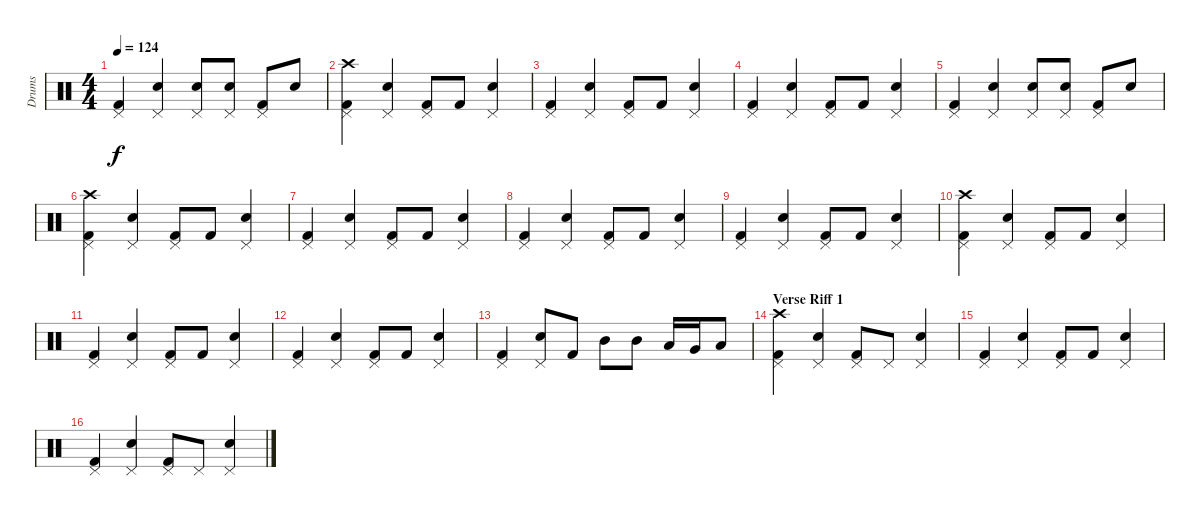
\track ("Drums" "Drums") {instrument percussion}
\staff {score}
\articulation defaults
\ts (4 4)
\tempo 124
\clef neutral
\ks c
("Kick (hit) 2" "Pedal Hi-Hat (hit)").4{dy f} ("Snare (hit) 2" "Pedal Hi-Hat (hit)").4 ("Snare (hit) 2" "Pedal Hi-Hat (hit)").8 ("Snare (hit) 2" "Pedal Hi-Hat (hit)").8 ("Kick (hit) 2" "Pedal Hi-Hat (hit)").8 "Snare (hit) 2".8 |
("Kick (hit) 2" "Pedal Hi-Hat (hit)" "Crash high (hit)").4 ("Snare (hit) 2" "Pedal Hi-Hat (hit)").4 ("Kick (hit) 2" "Pedal Hi-Hat (hit)").8 "Kick (hit) 2".8 ("Snare (hit) 2" "Pedal Hi-Hat (hit)").4 |
("Kick (hit) 2" "Pedal Hi-Hat (hit)").4 ("Snare (hit) 2" "Pedal Hi-Hat (hit)").4 ("Kick (hit) 2" "Pedal Hi-Hat (hit)").8 "Kick (hit) 2".8 ("Snare (hit) 2" "Pedal Hi-Hat (hit)").4 |
("Kick (hit) 2" "Pedal Hi-Hat (hit)").4 ("Snare (hit) 2" "Pedal Hi-Hat (hit)").4 ("Kick (hit) 2" "Pedal Hi-Hat (hit)").8 "Kick (hit) 2".8 ("Snare (hit) 2" "Pedal Hi-Hat (hit)").4 |
("Kick (hit) 2" "Pedal Hi-Hat (hit)").4 ("Snare (hit) 2" "Pedal Hi-Hat (hit)").4 ("Snare (hit) 2" "Pedal Hi-Hat (hit)").8 ("Snare (hit) 2" "Pedal Hi-Hat (hit)").8 ("Kick (hit) 2" "Pedal Hi-Hat (hit)").8 "Snare (hit) 2".8 |
("Kick (hit) 2" "Pedal Hi-Hat (hit)" "Crash high (hit)").4 ("Snare (hit) 2" "Pedal Hi-Hat (hit)").4 ("Kick (hit) 2" "Pedal Hi-Hat (hit)").8 "Kick (hit) 2".8 ("Snare (hit) 2" "Pedal Hi-Hat (hit)").4 |
("Kick (hit) 2" "Pedal Hi-Hat (hit)").4 ("Snare (hit) 2" "Pedal Hi-Hat (hit)").4 ("Kick (hit) 2" "Pedal Hi-Hat (hit)").8 "Kick (hit) 2".8 ("Snare (hit) 2" "Pedal Hi-Hat (hit)").4 |
("Kick (hit) 2" "Pedal Hi-Hat (hit)").4 ("Snare (hit) 2" "Pedal Hi-Hat (hit)").4 ("Kick (hit) 2" "Pedal Hi-Hat (hit)").8 "Kick (hit) 2".8 ("Snare (hit) 2" "Pedal Hi-Hat (hit)").4 |
("Kick (hit) 2" "Pedal Hi-Hat (hit)").4 ("Snare (hit) 2" "Pedal Hi-Hat (hit)").4 ("Kick (hit) 2" "Pedal Hi-Hat (hit)").8 "Kick (hit) 2".8 ("Snare (hit) 2" "Pedal Hi-Hat (hit)").4 |
("Kick (hit) 2" "Pedal Hi-Hat (hit)" "Crash high (hit)").4 ("Snare (hit) 2" "Pedal Hi-Hat (hit)").4 ("Kick (hit) 2" "Pedal Hi-Hat (hit)").8 "Kick (hit) 2".8 ("Snare (hit) 2" "Pedal Hi-Hat (hit)").4 |
("Kick (hit) 2" "Pedal Hi-Hat (hit)").4 ("Snare (hit) 2" "Pedal Hi-Hat (hit)").4 ("Kick (hit) 2" "Pedal Hi-Hat (hit)").8 "Kick (hit) 2".8 ("Snare (hit) 2" "Pedal Hi-Hat (hit)").4 |
("Kick (hit) 2" "Pedal Hi-Hat (hit)").4 ("Snare (hit) 2" "Pedal Hi-Hat (hit)").4 ("Kick (hit) 2" "Pedal Hi-Hat (hit)").8 "Kick (hit) 2".8 ("Snare (hit) 2" "Pedal Hi-Hat (hit)").4 |
("Kick (hit) 2" "Pedal Hi-Hat (hit)").4 ("Snare (hit) 2" "Pedal Hi-Hat (hit)").8 "Kick (hit) 2".8 "Mid Tom (hit)".8 "Mid Tom (hit)".8 "Low Tom (hit)".16 "Very Low Tom (hit)".16 "Low Floor Tom (hit)".8 |
\section ("" "Verse Riff 1")
("Kick (hit) 2" "Pedal Hi-Hat (hit)" "Crash high (hit)").4 ("Snare (hit) 2" "Pedal Hi-Hat (hit)").4 ("Kick (hit) 2" "Pedal Hi-Hat (hit)").8 "Pedal Hi-Hat (hit)".8 ("Snare (hit) 2" "Pedal Hi-Hat (hit)").4 |
("Kick (hit) 2" "Pedal Hi-Hat (hit)").4 ("Snare (hit) 2" "Pedal Hi-Hat (hit)").4 ("Kick (hit) 2" "Pedal Hi-Hat (hit)").8 "Kick (hit) 2".8 ("Snare (hit) 2" "Pedal Hi-Hat (hit)").4 |
("Kick (hit) 2" "Pedal Hi-Hat (hit)").4 ("Snare (hit) 2" "Pedal Hi-Hat (hit)").4 ("Kick (hit) 2" "Pedal Hi-Hat (hit)").8 "Pedal Hi-Hat (hit)".8 ("Snare (hit) 2" "Pedal Hi-Hat (hit)").4
